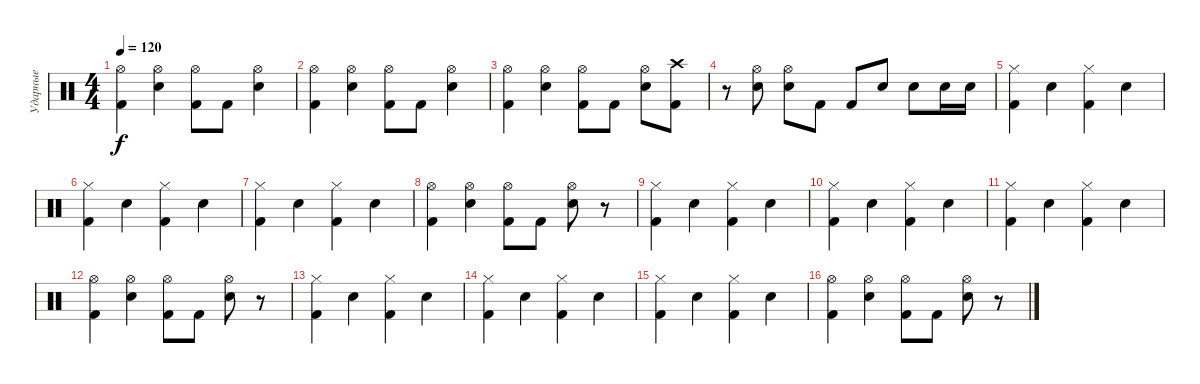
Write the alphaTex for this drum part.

\track ("Ударные" "Ударные") {instrument percussion}
\staff {score}
\articulation defaults
\ts (4 4)
\tempo 120
\clef neutral
\ks c
("Kick (hit) 2" "Hi-Hat (open)").4{dy f} ("Snare (hit) 2" "Hi-Hat (open)").4 ("Kick (hit) 2" "Hi-Hat (open)").8 "Kick (hit) 2".8 ("Snare (hit) 2" "Hi-Hat (open)").4 |
("Kick (hit) 2" "Hi-Hat (open)").4 ("Snare (hit) 2" "Hi-Hat (open)").4 ("Kick (hit) 2" "Hi-Hat (open)").8 "Kick (hit) 2".8 ("Snare (hit) 2" "Hi-Hat (open)").4 |
("Kick (hit) 2" "Hi-Hat (open)").4 ("Snare (hit) 2" "Hi-Hat (open)").4 ("Kick (hit) 2" "Hi-Hat (open)").8 "Kick (hit) 2".8 ("Snare (hit) 2" "Hi-Hat (open)").8 ("Kick (hit) 2" "Crash high (hit)").8 |
r.8 ("Snare (hit) 2" "Hi-Hat (open)").8 ("Snare (hit) 2" "Hi-Hat (open)").8 "Kick (hit) 2".8 "Kick (hit) 2".8 "Snare (hit) 2".8 "Snare (hit) 2".8 "Snare (hit) 2".16 "Snare (hit) 2".16 |
("Kick (hit) 2" "Hi-Hat (closed)").4 "Snare (hit) 2".4 ("Kick (hit) 2" "Hi-Hat (closed)").4 "Snare (hit) 2".4 |
("Kick (hit) 2" "Hi-Hat (closed)").4 "Snare (hit) 2".4 ("Kick (hit) 2" "Hi-Hat (closed)").4 "Snare (hit) 2".4 |
("Kick (hit) 2" "Hi-Hat (closed)").4 "Snare (hit) 2".4 ("Kick (hit) 2" "Hi-Hat (closed)").4 "Snare (hit) 2".4 |
("Kick (hit) 2" "Hi-Hat (open)").4 ("Snare (hit) 2" "Hi-Hat (open)").4 ("Kick (hit) 2" "Hi-Hat (open)").8 "Kick (hit) 2".8 ("Snare (hit) 2" "Hi-Hat (open)").8 r.8 |
("Kick (hit) 2" "Hi-Hat (closed)").4 "Snare (hit) 2".4 ("Kick (hit) 2" "Hi-Hat (closed)").4 "Snare (hit) 2".4 |
("Kick (hit) 2" "Hi-Hat (closed)").4 "Snare (hit) 2".4 ("Kick (hit) 2" "Hi-Hat (closed)").4 "Snare (hit) 2".4 |
("Kick (hit) 2" "Hi-Hat (closed)").4 "Snare (hit) 2".4 ("Kick (hit) 2" "Hi-Hat (closed)").4 "Snare (hit) 2".4 |
("Kick (hit) 2" "Hi-Hat (open)").4 ("Snare (hit) 2" "Hi-Hat (open)").4 ("Kick (hit) 2" "Hi-Hat (open)").8 "Kick (hit) 2".8 ("Snare (hit) 2" "Hi-Hat (open)").8 r.8 |
("Kick (hit) 2" "Hi-Hat (closed)").4 "Snare (hit) 2".4 ("Kick (hit) 2" "Hi-Hat (closed)").4 "Snare (hit) 2".4 |
("Kick (hit) 2" "Hi-Hat (closed)").4 "Snare (hit) 2".4 ("Kick (hit) 2" "Hi-Hat (closed)").4 "Snare (hit) 2".4 |
("Kick (hit) 2" "Hi-Hat (closed)").4 "Snare (hit) 2".4 ("Kick (hit) 2" "Hi-Hat (closed)").4 "Snare (hit) 2".4 |
("Kick (hit) 2" "Hi-Hat (open)").4 ("Snare (hit) 2" "Hi-Hat (open)").4 ("Kick (hit) 2" "Hi-Hat (open)").8 "Kick (hit) 2".8 ("Snare (hit) 2" "Hi-Hat (open)").8 r.8
